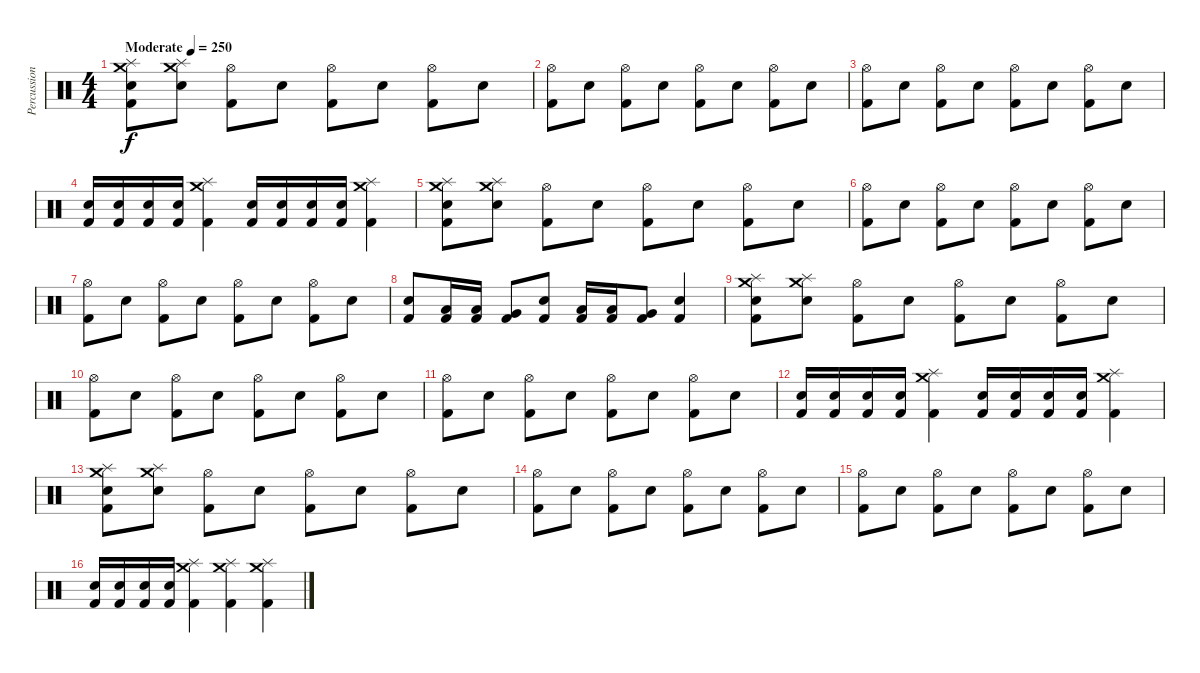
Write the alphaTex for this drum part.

\track ("Percussioni" "Percussion") {instrument percussion}
\staff {score}
\articulation defaults
\ts (4 4)
\tempo (250 "Moderate")
\clef neutral
\ks c
("Crash medium (hit)" "Splash (hit)" "Electric Snare (hit)" "Kick (hit) 2").8{dy f} ("Crash medium (hit)" "Splash (hit)" "Electric Snare (hit)").8 ("Hi-Hat (open)" "Kick (hit) 2").8 "Electric Snare (hit)".8 ("Hi-Hat (open)" "Kick (hit) 2").8 "Electric Snare (hit)".8 ("Hi-Hat (open)" "Kick (hit) 2").8 "Electric Snare (hit)".8 |
("Hi-Hat (open)" "Kick (hit) 2").8 "Electric Snare (hit)".8 ("Hi-Hat (open)" "Kick (hit) 2").8 "Electric Snare (hit)".8 ("Hi-Hat (open)" "Kick (hit) 2").8 "Electric Snare (hit)".8 ("Hi-Hat (open)" "Kick (hit) 2").8 "Electric Snare (hit)".8 |
("Hi-Hat (open)" "Kick (hit) 2").8 "Electric Snare (hit)".8 ("Hi-Hat (open)" "Kick (hit) 2").8 "Electric Snare (hit)".8 ("Hi-Hat (open)" "Kick (hit) 2").8 "Electric Snare (hit)".8 ("Hi-Hat (open)" "Kick (hit) 2").8 "Electric Snare (hit)".8 |
("Electric Snare (hit)" "Kick (hit) 2").16 ("Electric Snare (hit)" "Kick (hit) 2").16 ("Electric Snare (hit)" "Kick (hit) 2").16 ("Electric Snare (hit)" "Kick (hit) 2").16 ("Splash (hit)" "Crash medium (hit)" "Kick (hit) 2").4 ("Electric Snare (hit)" "Kick (hit) 2").16 ("Electric Snare (hit)" "Kick (hit) 2").16 ("Electric Snare (hit)" "Kick (hit) 2").16 ("Electric Snare (hit)" "Kick (hit) 2").16 ("Splash (hit)" "Crash medium (hit)" "Kick (hit) 2").4 |
("Crash medium (hit)" "Splash (hit)" "Electric Snare (hit)" "Kick (hit) 2").8 ("Crash medium (hit)" "Splash (hit)" "Electric Snare (hit)").8 ("Hi-Hat (open)" "Kick (hit) 2").8 "Electric Snare (hit)".8 ("Hi-Hat (open)" "Kick (hit) 2").8 "Electric Snare (hit)".8 ("Hi-Hat (open)" "Kick (hit) 2").8 "Electric Snare (hit)".8 |
("Hi-Hat (open)" "Kick (hit) 2").8 "Electric Snare (hit)".8 ("Hi-Hat (open)" "Kick (hit) 2").8 "Electric Snare (hit)".8 ("Hi-Hat (open)" "Kick (hit) 2").8 "Electric Snare (hit)".8 ("Hi-Hat (open)" "Kick (hit) 2").8 "Electric Snare (hit)".8 |
("Hi-Hat (open)" "Kick (hit) 2").8 "Electric Snare (hit)".8 ("Hi-Hat (open)" "Kick (hit) 2").8 "Electric Snare (hit)".8 ("Hi-Hat (open)" "Kick (hit) 2").8 "Electric Snare (hit)".8 ("Hi-Hat (open)" "Kick (hit) 2").8 "Electric Snare (hit)".8 |
("Electric Snare (hit)" "Kick (hit) 2").8 ("Low Tom (hit)" "Kick (hit) 2").16 ("Low Tom (hit)" "Kick (hit) 2").16 ("Very Low Tom (hit)" "Kick (hit) 2").8 ("Electric Snare (hit)" "Kick (hit) 2").8 ("Low Tom (hit)" "Kick (hit) 2").16 ("Low Tom (hit)" "Kick (hit) 2").16 ("Very Low Tom (hit)" "Kick (hit) 2").8 ("Electric Snare (hit)" "Kick (hit) 2").4 |
("Crash medium (hit)" "Splash (hit)" "Electric Snare (hit)" "Kick (hit) 2").8 ("Crash medium (hit)" "Splash (hit)" "Electric Snare (hit)").8 ("Hi-Hat (open)" "Kick (hit) 2").8 "Electric Snare (hit)".8 ("Hi-Hat (open)" "Kick (hit) 2").8 "Electric Snare (hit)".8 ("Hi-Hat (open)" "Kick (hit) 2").8 "Electric Snare (hit)".8 |
("Hi-Hat (open)" "Kick (hit) 2").8 "Electric Snare (hit)".8 ("Hi-Hat (open)" "Kick (hit) 2").8 "Electric Snare (hit)".8 ("Hi-Hat (open)" "Kick (hit) 2").8 "Electric Snare (hit)".8 ("Hi-Hat (open)" "Kick (hit) 2").8 "Electric Snare (hit)".8 |
("Hi-Hat (open)" "Kick (hit) 2").8 "Electric Snare (hit)".8 ("Hi-Hat (open)" "Kick (hit) 2").8 "Electric Snare (hit)".8 ("Hi-Hat (open)" "Kick (hit) 2").8 "Electric Snare (hit)".8 ("Hi-Hat (open)" "Kick (hit) 2").8 "Electric Snare (hit)".8 |
("Electric Snare (hit)" "Kick (hit) 2").16 ("Electric Snare (hit)" "Kick (hit) 2").16 ("Electric Snare (hit)" "Kick (hit) 2").16 ("Electric Snare (hit)" "Kick (hit) 2").16 ("Splash (hit)" "Crash medium (hit)" "Kick (hit) 2").4 ("Electric Snare (hit)" "Kick (hit) 2").16 ("Electric Snare (hit)" "Kick (hit) 2").16 ("Electric Snare (hit)" "Kick (hit) 2").16 ("Electric Snare (hit)" "Kick (hit) 2").16 ("Splash (hit)" "Crash medium (hit)" "Kick (hit) 2").4 |
("Crash medium (hit)" "Splash (hit)" "Electric Snare (hit)" "Kick (hit) 2").8 ("Crash medium (hit)" "Splash (hit)" "Electric Snare (hit)").8 ("Hi-Hat (open)" "Kick (hit) 2").8 "Electric Snare (hit)".8 ("Hi-Hat (open)" "Kick (hit) 2").8 "Electric Snare (hit)".8 ("Hi-Hat (open)" "Kick (hit) 2").8 "Electric Snare (hit)".8 |
("Hi-Hat (open)" "Kick (hit) 2").8 "Electric Snare (hit)".8 ("Hi-Hat (open)" "Kick (hit) 2").8 "Electric Snare (hit)".8 ("Hi-Hat (open)" "Kick (hit) 2").8 "Electric Snare (hit)".8 ("Hi-Hat (open)" "Kick (hit) 2").8 "Electric Snare (hit)".8 |
("Hi-Hat (open)" "Kick (hit) 2").8 "Electric Snare (hit)".8 ("Hi-Hat (open)" "Kick (hit) 2").8 "Electric Snare (hit)".8 ("Hi-Hat (open)" "Kick (hit) 2").8 "Electric Snare (hit)".8 ("Hi-Hat (open)" "Kick (hit) 2").8 "Electric Snare (hit)".8 |
("Electric Snare (hit)" "Kick (hit) 2").16 ("Electric Snare (hit)" "Kick (hit) 2").16 ("Electric Snare (hit)" "Kick (hit) 2").16 ("Electric Snare (hit)" "Kick (hit) 2").16 ("Splash (hit)" "Crash medium (hit)" "Kick (hit) 2").4 ("Splash (hit)" "Crash medium (hit)" "Kick (hit) 2").4 ("Splash (hit)" "Crash medium (hit)" "Kick (hit) 2").4
